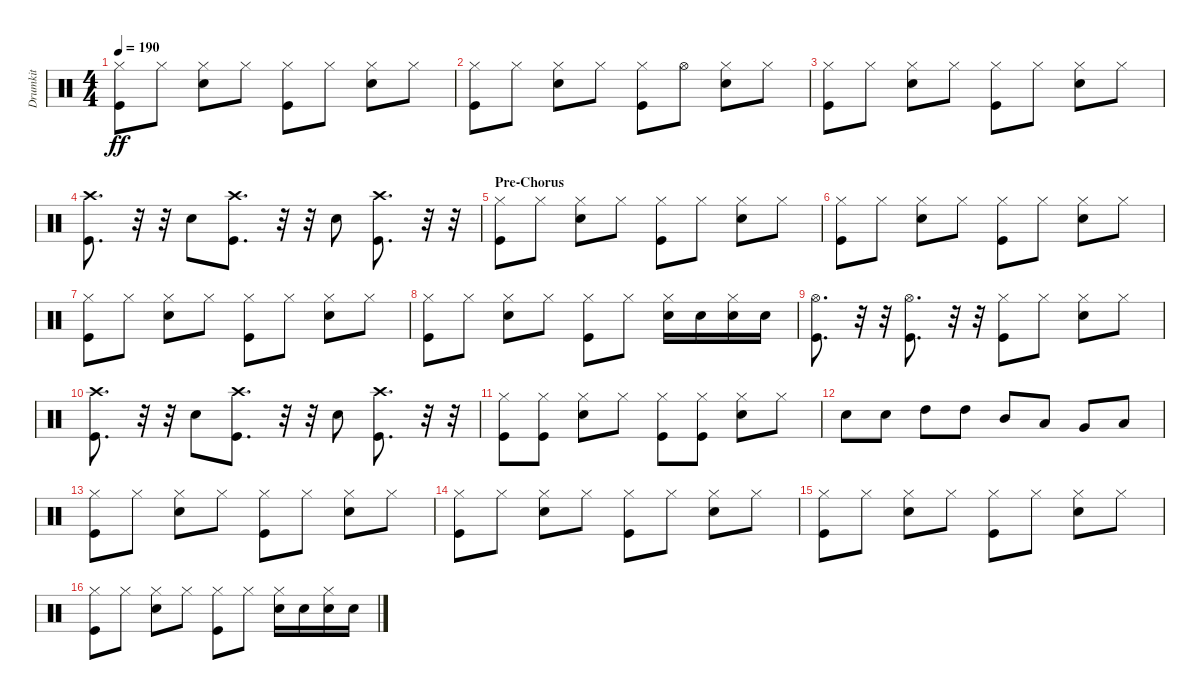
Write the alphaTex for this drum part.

\track ("Drumkit" "Drumkit") {instrument percussion}
\staff {score}
\articulation defaults
\ts (4 4)
\tempo 190
\clef neutral
\ks c
("Kick (hit)" "Hi-Hat (closed)").8{dy ff} "Hi-Hat (closed)".8 ("Snare (hit) 2" "Hi-Hat (closed)").8 "Hi-Hat (closed)".8 ("Kick (hit)" "Hi-Hat (closed)").8 "Hi-Hat (closed)".8 ("Snare (hit) 2" "Hi-Hat (closed)").8 "Hi-Hat (closed)".8 |
("Kick (hit)" "Hi-Hat (closed)").8 "Hi-Hat (closed)".8 ("Snare (hit) 2" "Hi-Hat (closed)").8 "Hi-Hat (closed)".8 ("Kick (hit)" "Hi-Hat (closed)").8 "Hi-Hat (open)".8 ("Snare (hit) 2" "Hi-Hat (closed)").8 "Hi-Hat (closed)".8 |
("Kick (hit)" "Hi-Hat (closed)").8 "Hi-Hat (closed)".8 ("Snare (hit) 2" "Hi-Hat (closed)").8 "Hi-Hat (closed)".8 ("Kick (hit)" "Hi-Hat (closed)").8 "Hi-Hat (closed)".8 ("Snare (hit) 2" "Hi-Hat (closed)").8 "Hi-Hat (closed)".8 |
("Kick (hit)" "Crash high (hit)").8{d} r.32 r.32 "Snare (hit) 2".8 ("Kick (hit)" "Crash high (hit)").8{d} r.32 r.32 "Snare (hit) 2".8 ("Kick (hit)" "Crash high (hit)").8{d} r.32 r.32 |
\section ("" "Pre-Chorus")
("Kick (hit)" "Hi-Hat (closed)").8 "Hi-Hat (closed)".8 ("Snare (hit) 2" "Hi-Hat (closed)").8 "Hi-Hat (closed)".8 ("Kick (hit)" "Hi-Hat (closed)").8 "Hi-Hat (closed)".8 ("Snare (hit) 2" "Hi-Hat (closed)").8 "Hi-Hat (closed)".8 |
("Kick (hit)" "Hi-Hat (closed)").8 "Hi-Hat (closed)".8 ("Snare (hit) 2" "Hi-Hat (closed)").8 "Hi-Hat (closed)".8 ("Kick (hit)" "Hi-Hat (closed)").8 "Hi-Hat (closed)".8 ("Snare (hit) 2" "Hi-Hat (closed)").8 "Hi-Hat (closed)".8 |
("Kick (hit)" "Hi-Hat (closed)").8 "Hi-Hat (closed)".8 ("Snare (hit) 2" "Hi-Hat (closed)").8 "Hi-Hat (closed)".8 ("Kick (hit)" "Hi-Hat (closed)").8 "Hi-Hat (closed)".8 ("Snare (hit) 2" "Hi-Hat (closed)").8 "Hi-Hat (closed)".8 |
("Kick (hit)" "Hi-Hat (closed)").8 "Hi-Hat (closed)".8 ("Snare (hit) 2" "Hi-Hat (closed)").8 "Hi-Hat (closed)".8 ("Kick (hit)" "Hi-Hat (closed)").8 "Hi-Hat (closed)".8 ("Snare (hit) 2" "Hi-Hat (closed)").16 "Snare (hit) 2".16 ("Snare (hit) 2" "Hi-Hat (closed)").16 "Snare (hit) 2".16 |
("Kick (hit)" "Hi-Hat (open)").8{d} r.32 r.32 ("Kick (hit)" "Hi-Hat (open)").8{d} r.32 r.32 ("Kick (hit)" "Hi-Hat (closed)").8 "Hi-Hat (closed)".8 ("Snare (hit) 2" "Hi-Hat (closed)").8 "Hi-Hat (closed)".8 |
("Kick (hit)" "Crash high (hit)").8{d} r.32 r.32 "Snare (hit) 2".8 ("Kick (hit)" "Crash high (hit)").8{d} r.32 r.32 "Snare (hit) 2".8 ("Kick (hit)" "Crash high (hit)").8{d} r.32 r.32 |
("Kick (hit)" "Hi-Hat (closed)").8 ("Kick (hit)" "Hi-Hat (closed)").8 ("Snare (hit) 2" "Hi-Hat (closed)").8 "Hi-Hat (closed)".8 ("Kick (hit)" "Hi-Hat (closed)").8 ("Kick (hit)" "Hi-Hat (closed)").8 ("Snare (hit) 2" "Hi-Hat (closed)").8 "Hi-Hat (closed)".8 |
"Snare (hit) 2".8 "Snare (hit) 2".8 "High Tom (hit)".8 "High Tom (hit)".8 "Mid Tom (hit)".8 "Low Tom (hit)".8 "Very Low Tom (hit)".8 "Low Floor Tom (hit)".8 |
("Kick (hit)" "Hi-Hat (closed)").8 "Hi-Hat (closed)".8 ("Snare (hit) 2" "Hi-Hat (closed)").8 "Hi-Hat (closed)".8 ("Kick (hit)" "Hi-Hat (closed)").8 "Hi-Hat (closed)".8 ("Snare (hit) 2" "Hi-Hat (closed)").8 "Hi-Hat (closed)".8 |
("Kick (hit)" "Hi-Hat (closed)").8 "Hi-Hat (closed)".8 ("Snare (hit) 2" "Hi-Hat (closed)").8 "Hi-Hat (closed)".8 ("Kick (hit)" "Hi-Hat (closed)").8 "Hi-Hat (closed)".8 ("Snare (hit) 2" "Hi-Hat (closed)").8 "Hi-Hat (closed)".8 |
("Kick (hit)" "Hi-Hat (closed)").8 "Hi-Hat (closed)".8 ("Snare (hit) 2" "Hi-Hat (closed)").8 "Hi-Hat (closed)".8 ("Kick (hit)" "Hi-Hat (closed)").8 "Hi-Hat (closed)".8 ("Snare (hit) 2" "Hi-Hat (closed)").8 "Hi-Hat (closed)".8 |
("Kick (hit)" "Hi-Hat (closed)").8 "Hi-Hat (closed)".8 ("Snare (hit) 2" "Hi-Hat (closed)").8 "Hi-Hat (closed)".8 ("Kick (hit)" "Hi-Hat (closed)").8 "Hi-Hat (closed)".8 ("Snare (hit) 2" "Hi-Hat (closed)").16 "Snare (hit) 2".16 ("Snare (hit) 2" "Hi-Hat (closed)").16 "Snare (hit) 2".16
